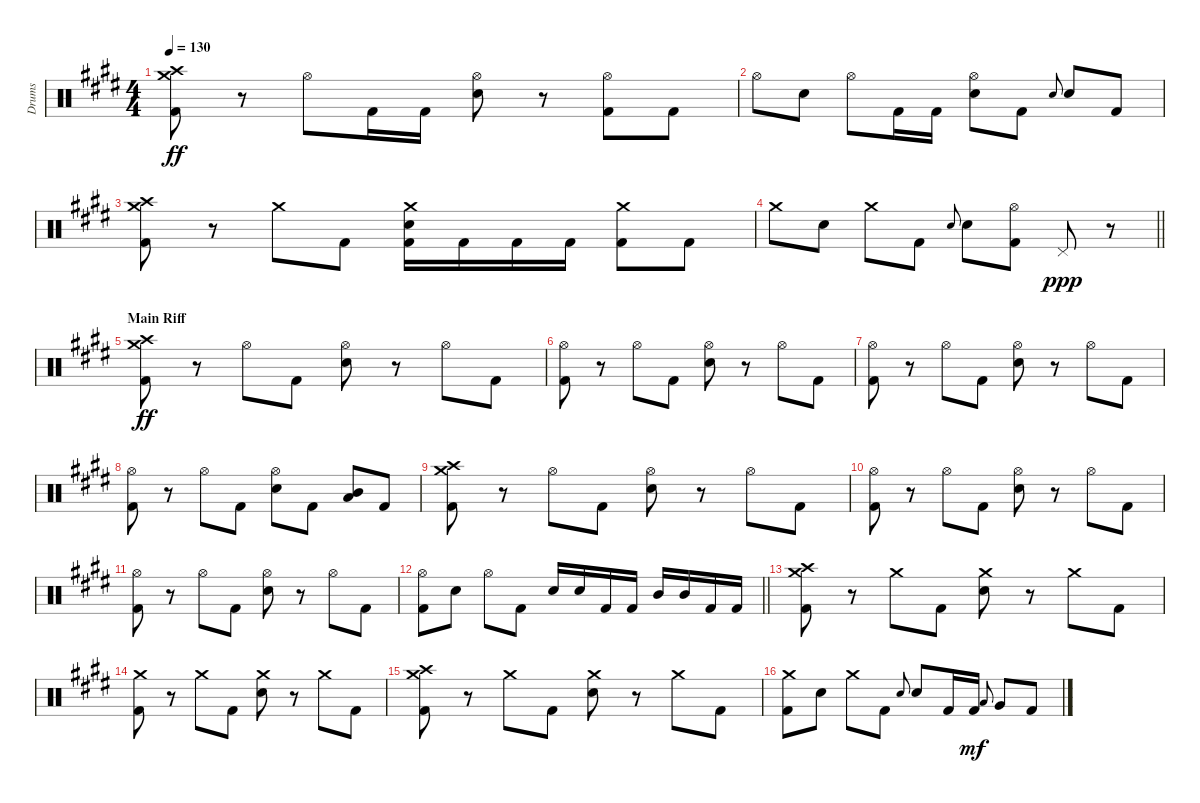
\track ("Drums" "Drums") {instrument percussion}
\staff {score}
\articulation defaults
\ts (4 4)
\tempo 130
\clef neutral
\ks c#minor
("Crash medium (hit)" "Crash high (hit)" "Kick (hit) 2").8{dy ff} r.8 "Hi-Hat (open)".8 "Kick (hit) 2".16 "Kick (hit) 2".16 ("Hi-Hat (open)" "Electric Snare (hit)").8 r.8 ("Hi-Hat (open)" "Kick (hit) 2").8 "Kick (hit) 2".8 |
"Hi-Hat (open)".8 "Electric Snare (hit)".8 "Hi-Hat (open)".8 "Kick (hit) 2".16 "Kick (hit) 2".16 ("Hi-Hat (open)" "Electric Snare (hit)").8 "Kick (hit) 2".8 "Electric Snare (hit)".8{gr onbeat} "Electric Snare (hit)".8 "Kick (hit) 2".8 |
("Crash medium (hit)" "Crash high (hit)" "Kick (hit) 2").8 r.8 "Crash medium (hit)".8 "Kick (hit) 2".8 ("Crash medium (hit)" "Electric Snare (hit)" "Kick (hit) 2").16 "Kick (hit) 2".16 "Kick (hit) 2".16 "Kick (hit) 2".16 ("Crash medium (hit)" "Kick (hit) 2").8 "Kick (hit) 2".8 |
\barLineRight lightlight "Crash medium (hit)".8 "Electric Snare (hit)".8 "Crash medium (hit)".8 "Kick (hit) 2".8 "Electric Snare (hit)".8{gr onbeat} "Electric Snare (hit)".8
("Hi-Hat (open)" "Kick (hit) 2").8 "Pedal Hi-Hat (hit)".8{dy ppp} r.8 |
\section ("" "Main Riff")
("Crash medium (hit)" "Crash high (hit)" "Kick (hit) 2").8{dy ff} r.8 "Hi-Hat (open)".8 "Kick (hit) 2".8 ("Hi-Hat (open)" "Electric Snare (hit)").8 r.8 "Hi-Hat (open)".8 "Kick (hit) 2".8 |
("Hi-Hat (open)" "Kick (hit) 2").8 r.8 "Hi-Hat (open)".8 "Kick (hit) 2".8 ("Hi-Hat (open)" "Electric Snare (hit)").8 r.8 "Hi-Hat (open)".8 "Kick (hit) 2".8 |
("Hi-Hat (open)" "Kick (hit) 2").8 r.8 "Hi-Hat (open)".8 "Kick (hit) 2".8 ("Hi-Hat (open)" "Electric Snare (hit)").8 r.8 "Hi-Hat (open)".8 "Kick (hit) 2".8 |
("Hi-Hat (open)" "Kick (hit) 2").8 r.8 "Hi-Hat (open)".8 "Kick (hit) 2".8 ("Hi-Hat (open)" "Electric Snare (hit)").8 "Kick (hit) 2".8 ("Mid Tom (hit)" "Low Tom (hit)").8 "Kick (hit) 2".8 |
("Crash medium (hit)" "Crash high (hit)" "Kick (hit) 2").8 r.8 "Hi-Hat (open)".8 "Kick (hit) 2".8 ("Hi-Hat (open)" "Electric Snare (hit)").8 r.8 "Hi-Hat (open)".8 "Kick (hit) 2".8 |
("Hi-Hat (open)" "Kick (hit) 2").8 r.8 "Hi-Hat (open)".8 "Kick (hit) 2".8 ("Hi-Hat (open)" "Electric Snare (hit)").8 r.8 "Hi-Hat (open)".8 "Kick (hit) 2".8 |
("Hi-Hat (open)" "Kick (hit) 2").8 r.8 "Hi-Hat (open)".8 "Kick (hit) 2".8 ("Hi-Hat (open)" "Electric Snare (hit)").8 r.8 "Hi-Hat (open)".8 "Kick (hit) 2".8 |
\barLineRight lightlight
("Hi-Hat (open)" "Kick (hit) 2").8 "Electric Snare (hit)".8 "Hi-Hat (open)".8 "Kick (hit) 2".8 "Electric Snare (hit)".16 "Electric Snare (hit)".16 "Kick (hit) 2".16 "Kick (hit) 2".16 "Mid Tom (hit)".16 "Mid Tom (hit)".16 "Kick (hit) 2".16 "Kick (hit) 2".16 |
("Crash medium (hit)" "Crash high (hit)" "Kick (hit) 2").8 r.8 "Crash medium (hit)".8 "Kick (hit) 2".8 ("Crash medium (hit)" "Electric Snare (hit)").8 r.8 "Crash medium (hit)".8 "Kick (hit) 2".8 |
("Crash medium (hit)" "Kick (hit) 2").8 r.8 "Crash medium (hit)".8 "Kick (hit) 2".8 ("Crash medium (hit)" "Electric Snare (hit)").8 r.8 "Crash medium (hit)".8 "Kick (hit) 2".8 |
("Crash medium (hit)" "Crash high (hit)" "Kick (hit) 2").8 r.8 "Crash medium (hit)".8 "Kick (hit) 2".8 ("Crash medium (hit)" "Electric Snare (hit)").8 r.8 "Crash medium (hit)".8 "Kick (hit) 2".8 |
("Crash medium (hit)" "Kick (hit) 2").8 "Electric Snare (hit)".8 "Crash medium (hit)".8 "Kick (hit) 2".8 "Electric Snare (hit)".8{gr onbeat} "Electric Snare (hit)".8 "Kick (hit) 2".16 "Kick (hit) 2".16{dy mf} "Low Floor Tom (hit)".8{gr onbeat} "Very Low Tom (hit)".8 "Kick (hit) 2".8
